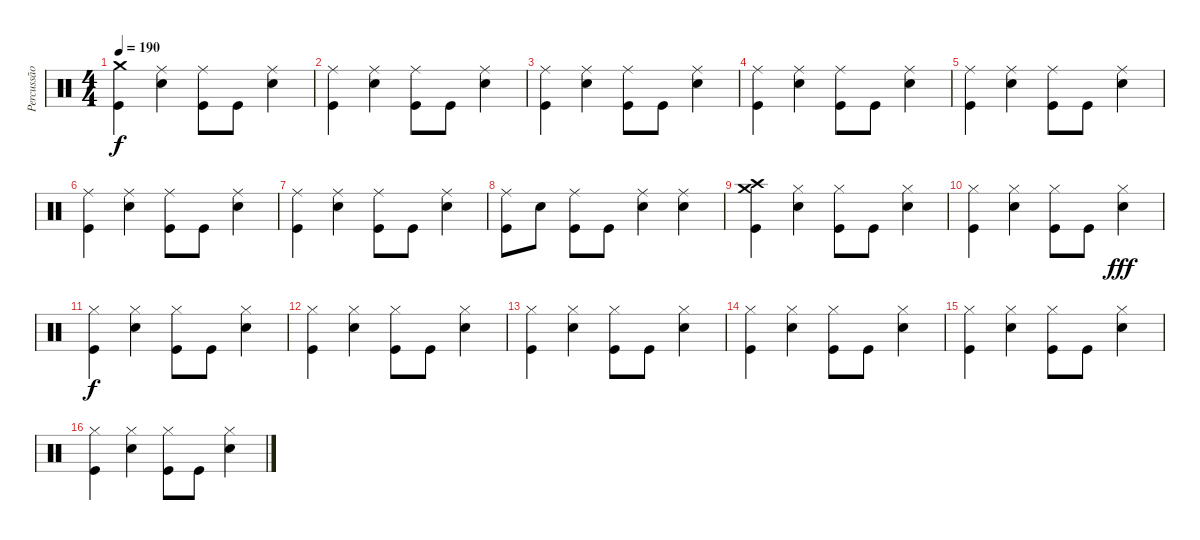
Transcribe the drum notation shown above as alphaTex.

\track ("Percussão" "Percussão") {instrument percussion}
\staff {score}
\articulation defaults
\ts (4 4)
\tempo 190
\clef neutral
\ks c
("Crash medium (hit)" "Kick (hit)").4{dy f} ("Ride (middle)" "Snare (hit) 2").4 ("Ride (middle)" "Kick (hit)").8 "Kick (hit)".8 ("Ride (middle)" "Snare (hit) 2").4 |
("Ride (middle)" "Kick (hit)").4 ("Ride (middle)" "Snare (hit) 2").4 ("Ride (middle)" "Kick (hit)").8 "Kick (hit)".8 ("Ride (middle)" "Snare (hit) 2").4 |
("Ride (middle)" "Kick (hit)").4 ("Ride (middle)" "Snare (hit) 2").4 ("Ride (middle)" "Kick (hit)").8 "Kick (hit)".8 ("Ride (middle)" "Snare (hit) 2").4 |
("Ride (middle)" "Kick (hit)").4 ("Ride (middle)" "Snare (hit) 2").4 ("Ride (middle)" "Kick (hit)").8 "Kick (hit)".8 ("Ride (middle)" "Snare (hit) 2").4 |
("Ride (middle)" "Kick (hit)").4 ("Ride (middle)" "Snare (hit) 2").4 ("Ride (middle)" "Kick (hit)").8 "Kick (hit)".8 ("Ride (middle)" "Snare (hit) 2").4 |
("Ride (middle)" "Kick (hit)").4 ("Ride (middle)" "Snare (hit) 2").4 ("Ride (middle)" "Kick (hit)").8 "Kick (hit)".8 ("Ride (middle)" "Snare (hit) 2").4 |
("Ride (middle)" "Kick (hit)").4 ("Ride (middle)" "Snare (hit) 2").4 ("Ride (middle)" "Kick (hit)").8 "Kick (hit)".8 ("Ride (middle)" "Snare (hit) 2").4 |
("Ride (middle)" "Kick (hit)").8 "Snare (hit) 2".8 ("Ride (middle)" "Kick (hit)").8 "Kick (hit)".8 ("Ride (middle)" "Snare (hit) 2").4 ("Ride (middle)" "Snare (hit) 2").4 |
("Crash high (hit)" "Crash medium (hit)" "Kick (hit)").4 ("Hi-Hat (closed)" "Snare (hit) 2").4 ("Hi-Hat (closed)" "Kick (hit)").8 "Kick (hit)".8 ("Hi-Hat (closed)" "Snare (hit) 2").4 |
("Hi-Hat (closed)" "Kick (hit)").4 ("Hi-Hat (closed)" "Snare (hit) 2").4 ("Hi-Hat (closed)" "Kick (hit)").8 "Kick (hit)".8 ("Hi-Hat (closed)" "Snare (hit) 2").4{dy fff} |
("Hi-Hat (closed)" "Kick (hit)").4{dy f} ("Hi-Hat (closed)" "Snare (hit) 2").4 ("Hi-Hat (closed)" "Kick (hit)").8 "Kick (hit)".8 ("Hi-Hat (closed)" "Snare (hit) 2").4 |
("Hi-Hat (closed)" "Kick (hit)").4 ("Hi-Hat (closed)" "Snare (hit) 2").4 ("Hi-Hat (closed)" "Kick (hit)").8 "Kick (hit)".8 ("Hi-Hat (closed)" "Snare (hit) 2").4 |
("Hi-Hat (closed)" "Kick (hit)").4 ("Hi-Hat (closed)" "Snare (hit) 2").4 ("Hi-Hat (closed)" "Kick (hit)").8 "Kick (hit)".8 ("Hi-Hat (closed)" "Snare (hit) 2").4 |
("Hi-Hat (closed)" "Kick (hit)").4 ("Hi-Hat (closed)" "Snare (hit) 2").4 ("Hi-Hat (closed)" "Kick (hit)").8 "Kick (hit)".8 ("Hi-Hat (closed)" "Snare (hit) 2").4 |
("Hi-Hat (closed)" "Kick (hit)").4 ("Hi-Hat (closed)" "Snare (hit) 2").4 ("Hi-Hat (closed)" "Kick (hit)").8 "Kick (hit)".8 ("Hi-Hat (closed)" "Snare (hit) 2").4 |
("Hi-Hat (closed)" "Kick (hit)").4 ("Hi-Hat (closed)" "Snare (hit) 2").4 ("Hi-Hat (closed)" "Kick (hit)").8 "Kick (hit)".8 ("Hi-Hat (closed)" "Snare (hit) 2").4
